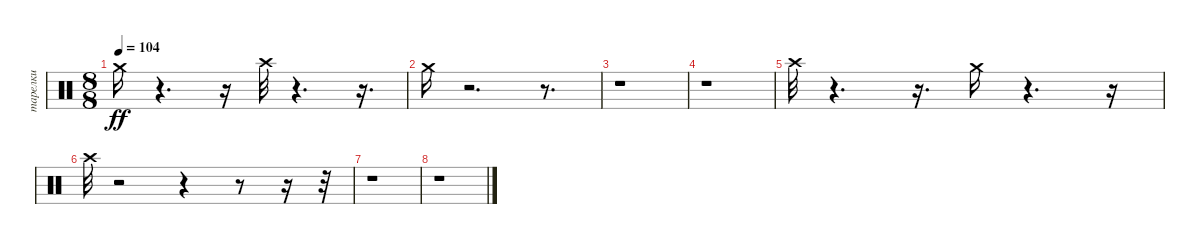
\track ("тарелки" "тарелки") {instrument percussion}
\staff {score}
\articulation defaults
\ts (8 8)
\tempo 104
\clef neutral
\ks c "Crash medium (hit)".16{dy ff}
r.4{d} r.16 "Crash high (hit)".32 r.4{d} r.16{d} |
"Crash medium (hit)".16 r.2{d} r.8{d} |
r.1 |
r.1 |
"Crash high (hit)".32 r.4{d} r.16{d} "Crash medium (hit)".16 r.4{d} r.16 |
"Crash high (hit)".32 r.2 r.4 r.8 r.16 r.32 |
r.1 |
r.1
